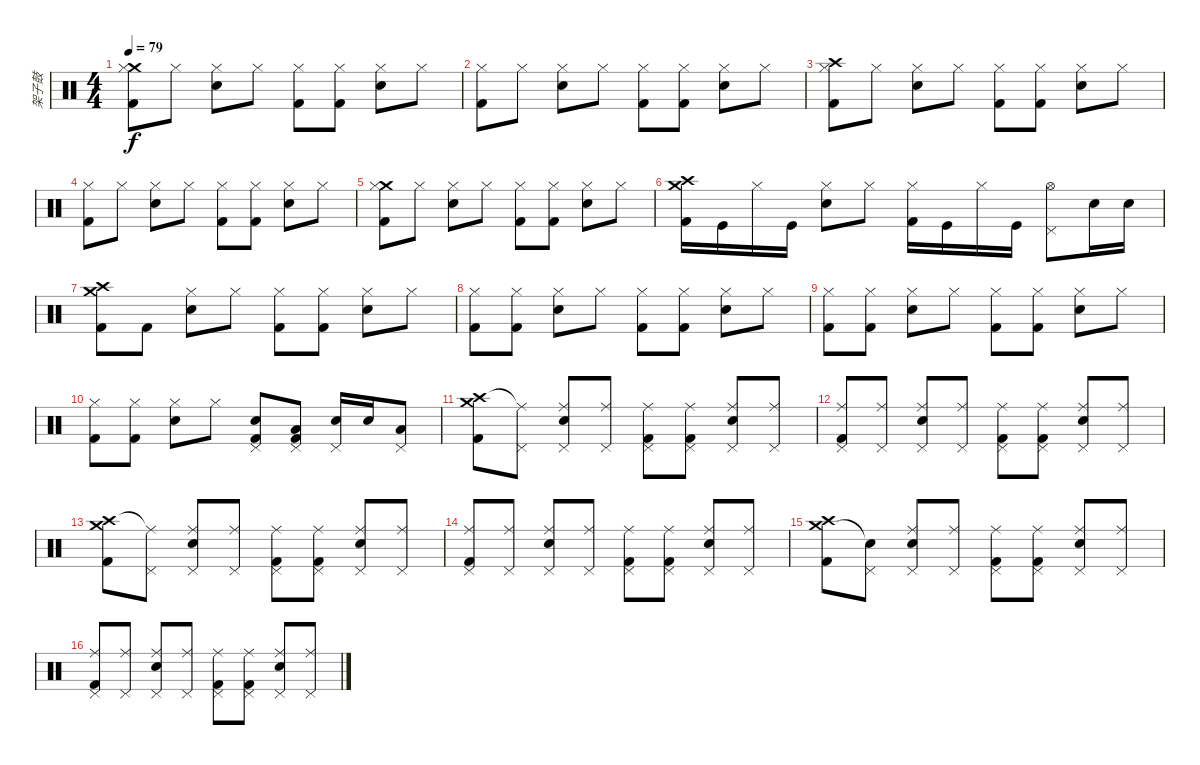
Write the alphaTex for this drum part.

\track ("架子鼓" "架子鼓") {instrument percussion}
\staff {score}
\articulation defaults
\ts (4 4)
\tempo 79
\clef neutral
\ks c
("Crash medium (hit)" "Hi-Hat (closed)" "Kick (hit) 2").8{dy f} "Hi-Hat (closed)".8 ("Hi-Hat (closed)" "Electric Snare (hit)").8 "Hi-Hat (closed)".8 ("Hi-Hat (closed)" "Kick (hit) 2").8 ("Hi-Hat (closed)" "Kick (hit) 2").8 ("Hi-Hat (closed)" "Electric Snare (hit)").8 "Hi-Hat (closed)".8 |
("Hi-Hat (closed)" "Kick (hit) 2").8 "Hi-Hat (closed)".8 ("Hi-Hat (closed)" "Electric Snare (hit)").8 "Hi-Hat (closed)".8 ("Hi-Hat (closed)" "Kick (hit) 2").8 ("Hi-Hat (closed)" "Kick (hit) 2").8 ("Hi-Hat (closed)" "Electric Snare (hit)").8 "Hi-Hat (closed)".8 |
("Crash high (hit)" "Hi-Hat (closed)" "Kick (hit) 2").8 "Hi-Hat (closed)".8 ("Hi-Hat (closed)" "Electric Snare (hit)").8 "Hi-Hat (closed)".8 ("Hi-Hat (closed)" "Kick (hit) 2").8 ("Hi-Hat (closed)" "Kick (hit) 2").8 ("Hi-Hat (closed)" "Electric Snare (hit)").8 "Hi-Hat (closed)".8 |
("Hi-Hat (closed)" "Kick (hit) 2").8 "Hi-Hat (closed)".8 ("Hi-Hat (closed)" "Electric Snare (hit)").8 "Hi-Hat (closed)".8 ("Hi-Hat (closed)" "Kick (hit) 2").8 ("Hi-Hat (closed)" "Kick (hit) 2").8 ("Hi-Hat (closed)" "Electric Snare (hit)").8 "Hi-Hat (closed)".8 |
("Crash medium (hit)" "Hi-Hat (closed)" "Kick (hit) 2").8 "Hi-Hat (closed)".8 ("Hi-Hat (closed)" "Electric Snare (hit)").8 "Hi-Hat (closed)".8 ("Hi-Hat (closed)" "Kick (hit) 2").8 ("Hi-Hat (closed)" "Kick (hit) 2").8 ("Hi-Hat (closed)" "Electric Snare (hit)").8 "Hi-Hat (closed)".8 |
("Crash high (hit)" "Crash medium (hit)" "Kick (hit) 2").16 "Kick (hit)".16 "Hi-Hat (closed)".16 "Kick (hit)".16 ("Hi-Hat (closed)" "Electric Snare (hit)").8 "Hi-Hat (closed)".8 ("Hi-Hat (closed)" "Kick (hit) 2").16 "Kick (hit)".16 "Hi-Hat (closed)".16 "Kick (hit)".16 ("Hi-Hat (open)" "Pedal Hi-Hat (hit)").8 "Electric Snare (hit)".16 "Electric Snare (hit)".16 |
("Crash high (hit)" "Crash medium (hit)" "Kick (hit) 2").8 "Kick (hit) 2".8 ("Hi-Hat (closed)" "Electric Snare (hit)").8 "Hi-Hat (closed)".8 ("Hi-Hat (closed)" "Kick (hit) 2").8 ("Hi-Hat (closed)" "Kick (hit) 2").8 ("Hi-Hat (closed)" "Electric Snare (hit)").8 "Hi-Hat (closed)".8 |
("Hi-Hat (closed)" "Kick (hit) 2").8 ("Hi-Hat (closed)" "Kick (hit) 2").8 ("Hi-Hat (closed)" "Electric Snare (hit)").8 "Hi-Hat (closed)".8 ("Hi-Hat (closed)" "Kick (hit) 2").8 ("Hi-Hat (closed)" "Kick (hit) 2").8 ("Hi-Hat (closed)" "Electric Snare (hit)").8 "Hi-Hat (closed)".8 |
("Hi-Hat (closed)" "Kick (hit) 2").8 ("Hi-Hat (closed)" "Kick (hit) 2").8 ("Hi-Hat (closed)" "Electric Snare (hit)").8 "Hi-Hat (closed)".8 ("Hi-Hat (closed)" "Kick (hit) 2").8 ("Hi-Hat (closed)" "Kick (hit) 2").8 ("Hi-Hat (closed)" "Electric Snare (hit)").8 "Hi-Hat (closed)".8 |
("Hi-Hat (closed)" "Kick (hit) 2").8 ("Hi-Hat (closed)" "Kick (hit) 2").8 ("Hi-Hat (closed)" "Electric Snare (hit)").8 "Hi-Hat (closed)".8 ("Pedal Hi-Hat (hit)" "Electric Snare (hit)" "Kick (hit) 2").8 ("Pedal Hi-Hat (hit)" "Low Tom (hit)" "Kick (hit) 2").8 ("Pedal Hi-Hat (hit)" "Electric Snare (hit)").16 "Electric Snare (hit)".16 ("Pedal Hi-Hat (hit)" "Low Tom (hit)").8 |
("Crash high (hit)" "Crash medium (hit)" "Kick (hit) 2").8 ("Ride (middle)"{t} "Pedal Hi-Hat (hit)").8 ("Ride (middle)" "Pedal Hi-Hat (hit)" "Electric Snare (hit)").8 ("Ride (middle)" "Pedal Hi-Hat (hit)").8 ("Ride (middle)" "Pedal Hi-Hat (hit)" "Kick (hit) 2").8 ("Ride (middle)" "Pedal Hi-Hat (hit)" "Kick (hit) 2").8 ("Ride (middle)" "Pedal Hi-Hat (hit)" "Electric Snare (hit)").8 ("Ride (middle)" "Pedal Hi-Hat (hit)").8 |
("Ride (middle)" "Pedal Hi-Hat (hit)" "Kick (hit) 2").8 ("Ride (middle)" "Pedal Hi-Hat (hit)").8 ("Ride (middle)" "Pedal Hi-Hat (hit)" "Electric Snare (hit)").8 ("Ride (middle)" "Pedal Hi-Hat (hit)").8 ("Ride (middle)" "Pedal Hi-Hat (hit)" "Kick (hit) 2").8 ("Ride (middle)" "Pedal Hi-Hat (hit)" "Kick (hit) 2").8 ("Ride (middle)" "Pedal Hi-Hat (hit)" "Electric Snare (hit)").8 ("Ride (middle)" "Pedal Hi-Hat (hit)").8 |
("Crash high (hit)" "Crash medium (hit)" "Kick (hit) 2").8 ("Ride (middle)"{t} "Pedal Hi-Hat (hit)").8 ("Ride (middle)" "Pedal Hi-Hat (hit)" "Electric Snare (hit)").8 ("Ride (middle)" "Pedal Hi-Hat (hit)").8 ("Ride (middle)" "Pedal Hi-Hat (hit)" "Kick (hit) 2").8 ("Ride (middle)" "Pedal Hi-Hat (hit)" "Kick (hit) 2").8 ("Ride (middle)" "Pedal Hi-Hat (hit)" "Electric Snare (hit)").8 ("Ride (middle)" "Pedal Hi-Hat (hit)").8 |
("Ride (middle)" "Pedal Hi-Hat (hit)" "Kick (hit) 2").8 ("Ride (middle)" "Pedal Hi-Hat (hit)").8 ("Ride (middle)" "Pedal Hi-Hat (hit)" "Electric Snare (hit)").8 ("Ride (middle)" "Pedal Hi-Hat (hit)").8 ("Ride (middle)" "Pedal Hi-Hat (hit)" "Kick (hit) 2").8 ("Ride (middle)" "Pedal Hi-Hat (hit)" "Kick (hit) 2").8 ("Ride (middle)" "Pedal Hi-Hat (hit)" "Electric Snare (hit)").8 ("Ride (middle)" "Pedal Hi-Hat (hit)").8 |
("Crash medium (hit)" "Crash high (hit)" "Kick (hit) 2").8 ("Snare (hit)"{t} "Pedal Hi-Hat (hit)").8 ("Ride (middle)" "Pedal Hi-Hat (hit)" "Electric Snare (hit)").8 ("Ride (middle)" "Pedal Hi-Hat (hit)").8 ("Ride (middle)" "Pedal Hi-Hat (hit)" "Kick (hit) 2").8 ("Ride (middle)" "Pedal Hi-Hat (hit)" "Kick (hit) 2").8 ("Ride (middle)" "Pedal Hi-Hat (hit)" "Electric Snare (hit)").8 ("Ride (middle)" "Pedal Hi-Hat (hit)").8 |
("Ride (middle)" "Pedal Hi-Hat (hit)" "Kick (hit) 2").8 ("Ride (middle)" "Pedal Hi-Hat (hit)").8 ("Ride (middle)" "Pedal Hi-Hat (hit)" "Electric Snare (hit)").8 ("Ride (middle)" "Pedal Hi-Hat (hit)").8 ("Ride (middle)" "Pedal Hi-Hat (hit)" "Kick (hit) 2").8 ("Ride (middle)" "Pedal Hi-Hat (hit)" "Kick (hit) 2").8 ("Ride (middle)" "Pedal Hi-Hat (hit)" "Electric Snare (hit)").8 ("Ride (middle)" "Pedal Hi-Hat (hit)").8
